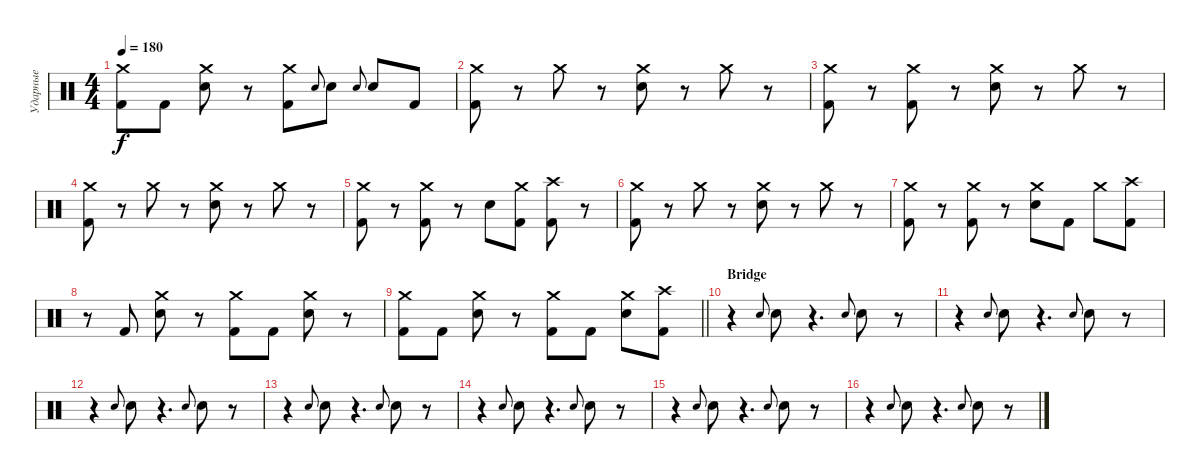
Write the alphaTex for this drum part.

\track ("Ударные" "Ударные") {instrument percussion}
\staff {score}
\articulation defaults
\ts (4 4)
\tempo 180
\clef neutral
\ks c
("Crash medium (hit)" "Kick (hit) 2").8{dy f} "Kick (hit) 2".8 ("Crash medium (hit)" "Snare (hit) 2").8 r.8 ("Crash medium (hit)" "Kick (hit) 2").8 "Snare (hit) 2".8{gr onbeat} "Snare (hit) 2".8 "Snare (hit) 2".8{gr onbeat} "Snare (hit) 2".8 "Kick (hit) 2".8 |
("Crash medium (hit)" "Kick (hit) 2").8 r.8 "Crash medium (hit)".8 r.8 ("Crash medium (hit)" "Snare (hit) 2").8 r.8 "Crash medium (hit)".8 r.8 |
("Crash medium (hit)" "Kick (hit) 2").8 r.8 ("Crash medium (hit)" "Kick (hit) 2").8 r.8 ("Crash medium (hit)" "Snare (hit) 2").8 r.8 "Crash medium (hit)".8 r.8 |
("Crash medium (hit)" "Kick (hit) 2").8 r.8 "Crash medium (hit)".8 r.8 ("Crash medium (hit)" "Snare (hit) 2").8 r.8 "Crash medium (hit)".8 r.8 |
("Crash medium (hit)" "Kick (hit) 2").8 r.8 ("Crash medium (hit)" "Kick (hit) 2").8 r.8 "Snare (hit) 2".8 ("Crash medium (hit)" "Kick (hit) 2").8 ("Crash high (hit)" "Kick (hit) 2").8 r.8 |
("Crash medium (hit)" "Kick (hit) 2").8 r.8 "Crash medium (hit)".8 r.8 ("Crash medium (hit)" "Snare (hit) 2").8 r.8 "Crash medium (hit)".8 r.8 |
("Crash medium (hit)" "Kick (hit) 2").8 r.8 ("Crash medium (hit)" "Kick (hit) 2").8 r.8 ("Crash medium (hit)" "Snare (hit) 2").8 "Kick (hit) 2".8 "Crash medium (hit)".8 ("Crash high (hit)" "Kick (hit) 2").8 |
r.8 "Kick (hit) 2".8 ("Crash medium (hit)" "Snare (hit) 2").8 r.8 ("Crash medium (hit)" "Kick (hit) 2").8 "Kick (hit) 2".8 ("Crash medium (hit)" "Snare (hit) 2").8 r.8 |
\barLineRight lightlight
("Crash medium (hit)" "Kick (hit) 2").8 "Kick (hit) 2".8 ("Crash medium (hit)" "Snare (hit) 2").8 r.8 ("Crash medium (hit)" "Kick (hit) 2").8 "Kick (hit) 2".8 ("Crash medium (hit)" "Snare (hit) 2").8 ("Crash high (hit)" "Kick (hit) 2").8 |
\section ("" "Bridge")
r.4 "Snare (hit) 2".8{gr onbeat} "Snare (hit) 2".8 r.4{d} "Snare (hit) 2".8{gr onbeat} "Snare (hit) 2".8 r.8 |
r.4 "Snare (hit) 2".8{gr onbeat} "Snare (hit) 2".8 r.4{d} "Snare (hit) 2".8{gr onbeat} "Snare (hit) 2".8 r.8 |
r.4 "Snare (hit) 2".8{gr onbeat} "Snare (hit) 2".8 r.4{d} "Snare (hit) 2".8{gr onbeat} "Snare (hit) 2".8 r.8 |
r.4 "Snare (hit) 2".8{gr onbeat} "Snare (hit) 2".8 r.4{d} "Snare (hit) 2".8{gr onbeat} "Snare (hit) 2".8 r.8 |
r.4 "Snare (hit) 2".8{gr onbeat} "Snare (hit) 2".8 r.4{d} "Snare (hit) 2".8{gr onbeat} "Snare (hit) 2".8 r.8 |
r.4 "Snare (hit) 2".8{gr onbeat} "Snare (hit) 2".8 r.4{d} "Snare (hit) 2".8{gr onbeat} "Snare (hit) 2".8 r.8 |
r.4 "Snare (hit) 2".8{gr onbeat} "Snare (hit) 2".8 r.4{d} "Snare (hit) 2".8{gr onbeat} "Snare (hit) 2".8 r.8
